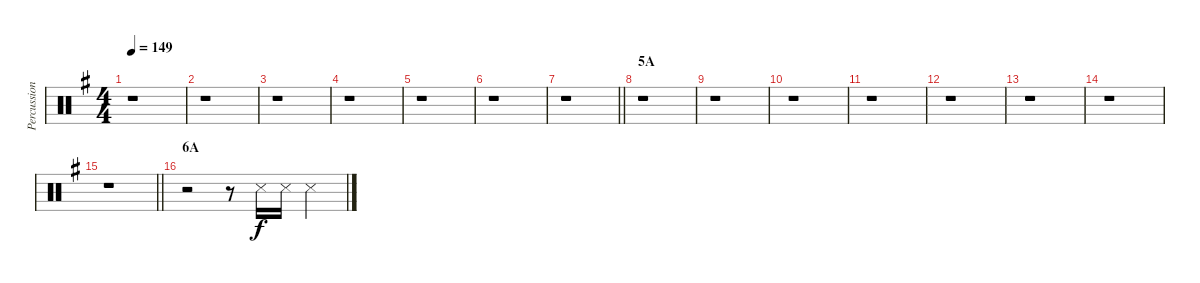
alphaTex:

\track ("Percussions" "Percussion") {instrument percussion}
\staff {score}
\articulation defaults
\ts (4 4)
\tempo 149
\clef neutral
\ks g
r.1{dy f} |
r.1 |
r.1 |
r.1 |
r.1 |
r.1 |
\barLineRight lightlight
r.1 |
\section ("" "5A")
r.1 |
r.1 |
r.1 |
r.1 |
r.1 |
r.1 |
r.1 |
\barLineRight lightlight
r.1 |
\section ("" "6A")
r.2 r.8 "Metronome (hit)".16 "Metronome (hit)".16 "Metronome (hit)".4
